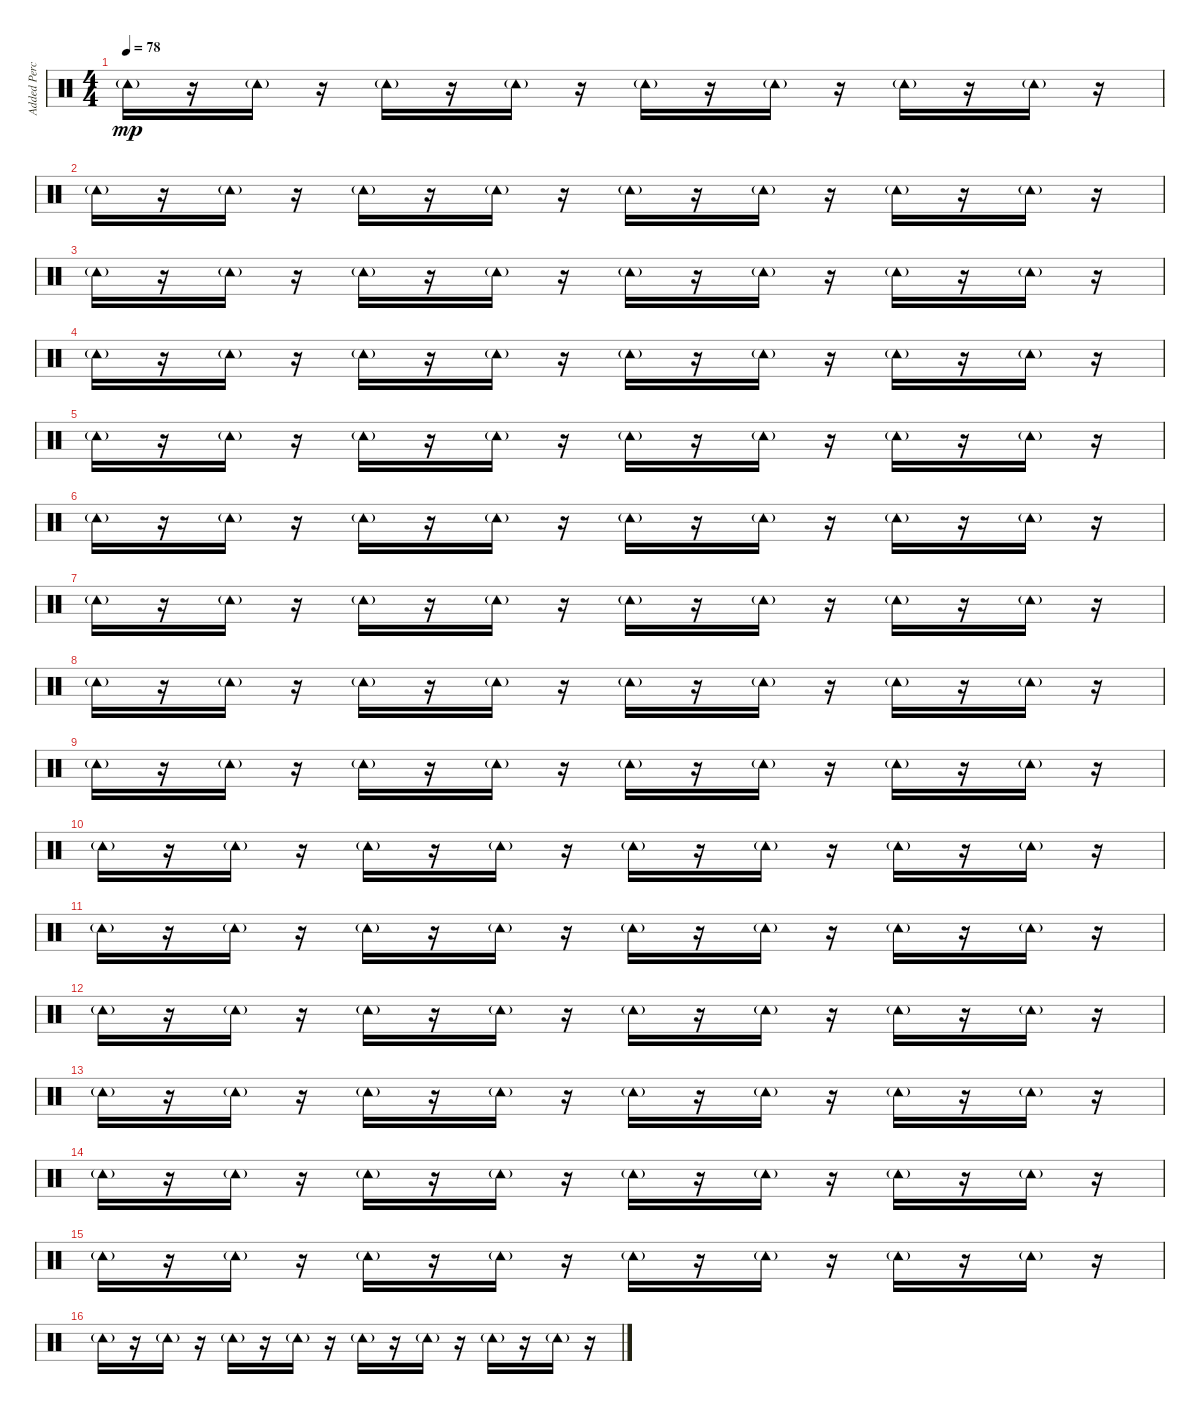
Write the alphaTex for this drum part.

\track ("Added Percussion" "Added Perc") {instrument percussion}
\staff {score}
\articulation defaults
\ts (4 4)
\tempo 78
\clef neutral
\ks c "Tambourine (hit)"{g}.16{dy mp}
r.16 "Tambourine (hit)"{g}.16 r.16 "Tambourine (hit)"{g}.16 r.16 "Tambourine (hit)"{g}.16 r.16 "Tambourine (hit)"{g}.16 r.16 "Tambourine (hit)"{g}.16 r.16 "Tambourine (hit)"{g}.16 r.16 "Tambourine (hit)"{g}.16 r.16 |
"Tambourine (hit)"{g}.16 r.16 "Tambourine (hit)"{g}.16 r.16 "Tambourine (hit)"{g}.16 r.16 "Tambourine (hit)"{g}.16 r.16 "Tambourine (hit)"{g}.16 r.16 "Tambourine (hit)"{g}.16 r.16 "Tambourine (hit)"{g}.16 r.16 "Tambourine (hit)"{g}.16 r.16 |
"Tambourine (hit)"{g}.16 r.16 "Tambourine (hit)"{g}.16 r.16 "Tambourine (hit)"{g}.16 r.16 "Tambourine (hit)"{g}.16 r.16 "Tambourine (hit)"{g}.16 r.16 "Tambourine (hit)"{g}.16 r.16 "Tambourine (hit)"{g}.16 r.16 "Tambourine (hit)"{g}.16 r.16 |
"Tambourine (hit)"{g}.16 r.16 "Tambourine (hit)"{g}.16 r.16 "Tambourine (hit)"{g}.16 r.16 "Tambourine (hit)"{g}.16 r.16 "Tambourine (hit)"{g}.16 r.16 "Tambourine (hit)"{g}.16 r.16 "Tambourine (hit)"{g}.16 r.16 "Tambourine (hit)"{g}.16 r.16 |
"Tambourine (hit)"{g}.16 r.16 "Tambourine (hit)"{g}.16 r.16 "Tambourine (hit)"{g}.16 r.16 "Tambourine (hit)"{g}.16 r.16 "Tambourine (hit)"{g}.16 r.16 "Tambourine (hit)"{g}.16 r.16 "Tambourine (hit)"{g}.16 r.16 "Tambourine (hit)"{g}.16 r.16 |
"Tambourine (hit)"{g}.16 r.16 "Tambourine (hit)"{g}.16 r.16 "Tambourine (hit)"{g}.16 r.16 "Tambourine (hit)"{g}.16 r.16 "Tambourine (hit)"{g}.16 r.16 "Tambourine (hit)"{g}.16 r.16 "Tambourine (hit)"{g}.16 r.16 "Tambourine (hit)"{g}.16 r.16 |
"Tambourine (hit)"{g}.16 r.16 "Tambourine (hit)"{g}.16 r.16 "Tambourine (hit)"{g}.16 r.16 "Tambourine (hit)"{g}.16 r.16 "Tambourine (hit)"{g}.16 r.16 "Tambourine (hit)"{g}.16 r.16 "Tambourine (hit)"{g}.16 r.16 "Tambourine (hit)"{g}.16 r.16 |
"Tambourine (hit)"{g}.16 r.16 "Tambourine (hit)"{g}.16 r.16 "Tambourine (hit)"{g}.16 r.16 "Tambourine (hit)"{g}.16 r.16 "Tambourine (hit)"{g}.16 r.16 "Tambourine (hit)"{g}.16 r.16 "Tambourine (hit)"{g}.16 r.16 "Tambourine (hit)"{g}.16 r.16 |
"Tambourine (hit)"{g}.16 r.16 "Tambourine (hit)"{g}.16 r.16 "Tambourine (hit)"{g}.16 r.16 "Tambourine (hit)"{g}.16 r.16 "Tambourine (hit)"{g}.16 r.16 "Tambourine (hit)"{g}.16 r.16 "Tambourine (hit)"{g}.16 r.16 "Tambourine (hit)"{g}.16 r.16 |
"Tambourine (hit)"{g}.16 r.16 "Tambourine (hit)"{g}.16 r.16 "Tambourine (hit)"{g}.16 r.16 "Tambourine (hit)"{g}.16 r.16 "Tambourine (hit)"{g}.16 r.16 "Tambourine (hit)"{g}.16 r.16 "Tambourine (hit)"{g}.16 r.16 "Tambourine (hit)"{g}.16 r.16 |
"Tambourine (hit)"{g}.16 r.16 "Tambourine (hit)"{g}.16 r.16 "Tambourine (hit)"{g}.16 r.16 "Tambourine (hit)"{g}.16 r.16 "Tambourine (hit)"{g}.16 r.16 "Tambourine (hit)"{g}.16 r.16 "Tambourine (hit)"{g}.16 r.16 "Tambourine (hit)"{g}.16 r.16 |
"Tambourine (hit)"{g}.16 r.16 "Tambourine (hit)"{g}.16 r.16 "Tambourine (hit)"{g}.16 r.16 "Tambourine (hit)"{g}.16 r.16 "Tambourine (hit)"{g}.16 r.16 "Tambourine (hit)"{g}.16 r.16 "Tambourine (hit)"{g}.16 r.16 "Tambourine (hit)"{g}.16 r.16 |
"Tambourine (hit)"{g}.16 r.16 "Tambourine (hit)"{g}.16 r.16 "Tambourine (hit)"{g}.16 r.16 "Tambourine (hit)"{g}.16 r.16 "Tambourine (hit)"{g}.16 r.16 "Tambourine (hit)"{g}.16 r.16 "Tambourine (hit)"{g}.16 r.16 "Tambourine (hit)"{g}.16 r.16 |
"Tambourine (hit)"{g}.16 r.16 "Tambourine (hit)"{g}.16 r.16 "Tambourine (hit)"{g}.16 r.16 "Tambourine (hit)"{g}.16 r.16 "Tambourine (hit)"{g}.16 r.16 "Tambourine (hit)"{g}.16 r.16 "Tambourine (hit)"{g}.16 r.16 "Tambourine (hit)"{g}.16 r.16 |
"Tambourine (hit)"{g}.16 r.16 "Tambourine (hit)"{g}.16 r.16 "Tambourine (hit)"{g}.16 r.16 "Tambourine (hit)"{g}.16 r.16 "Tambourine (hit)"{g}.16 r.16 "Tambourine (hit)"{g}.16 r.16 "Tambourine (hit)"{g}.16 r.16 "Tambourine (hit)"{g}.16 r.16 |
"Tambourine (hit)"{g}.16 r.16 "Tambourine (hit)"{g}.16 r.16 "Tambourine (hit)"{g}.16 r.16 "Tambourine (hit)"{g}.16 r.16 "Tambourine (hit)"{g}.16 r.16 "Tambourine (hit)"{g}.16 r.16 "Tambourine (hit)"{g}.16 r.16 "Tambourine (hit)"{g}.16 r.16
